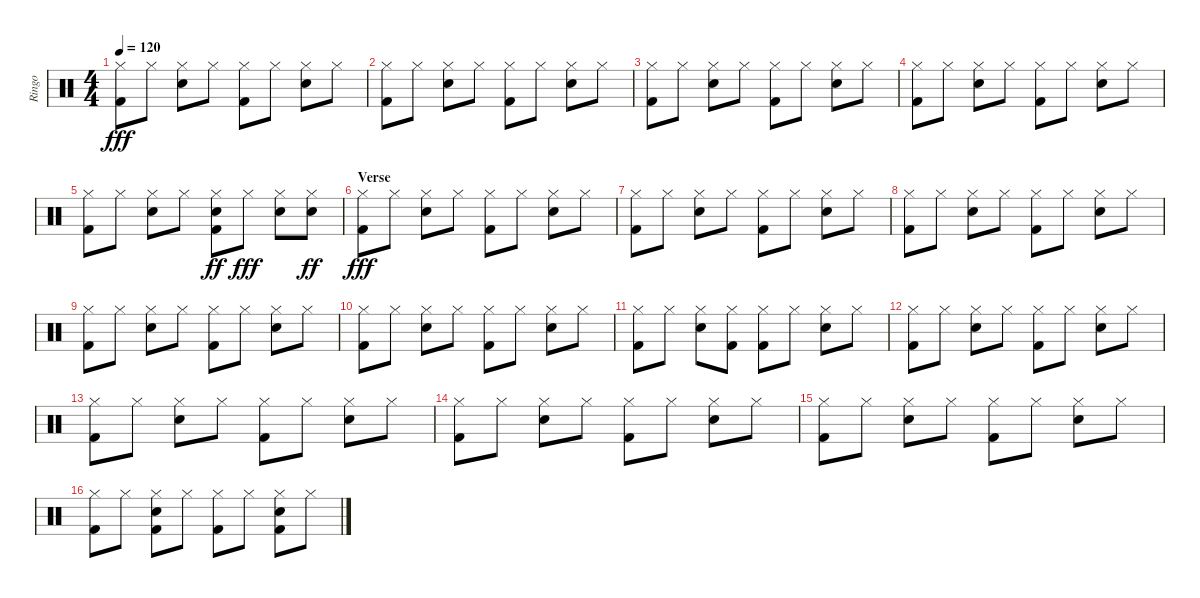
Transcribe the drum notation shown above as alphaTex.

\track ("Ringo" "Ringo") {instrument percussion}
\staff {score}
\articulation defaults
\ts (4 4)
\tempo 120
\clef neutral
\ks c
("Hi-Hat (closed)" "Kick (hit) 2").8{dy fff} "Hi-Hat (closed)".8 ("Hi-Hat (closed)" "Snare (hit) 2").8 "Hi-Hat (closed)".8 ("Hi-Hat (closed)" "Kick (hit) 2").8 "Hi-Hat (closed)".8 ("Hi-Hat (closed)" "Snare (hit) 2").8 "Hi-Hat (closed)".8 |
("Hi-Hat (closed)" "Kick (hit) 2").8 "Hi-Hat (closed)".8 ("Hi-Hat (closed)" "Snare (hit) 2").8 "Hi-Hat (closed)".8 ("Hi-Hat (closed)" "Kick (hit) 2").8 "Hi-Hat (closed)".8 ("Hi-Hat (closed)" "Snare (hit) 2").8 "Hi-Hat (closed)".8 |
("Hi-Hat (closed)" "Kick (hit) 2").8 "Hi-Hat (closed)".8 ("Hi-Hat (closed)" "Snare (hit) 2").8 "Hi-Hat (closed)".8 ("Hi-Hat (closed)" "Kick (hit) 2").8 "Hi-Hat (closed)".8 ("Hi-Hat (closed)" "Snare (hit) 2").8 "Hi-Hat (closed)".8 |
("Hi-Hat (closed)" "Kick (hit) 2").8 "Hi-Hat (closed)".8 ("Hi-Hat (closed)" "Snare (hit) 2").8 "Hi-Hat (closed)".8 ("Hi-Hat (closed)" "Kick (hit) 2").8 "Hi-Hat (closed)".8 ("Hi-Hat (closed)" "Snare (hit) 2").8 "Hi-Hat (closed)".8 |
("Hi-Hat (closed)" "Kick (hit) 2").8 "Hi-Hat (closed)".8 ("Hi-Hat (closed)" "Snare (hit) 2").8 "Hi-Hat (closed)".8 ("Hi-Hat (closed)" "Snare (hit) 2" "Kick (hit) 2").8{dy ff} "Hi-Hat (closed)".8{dy fff} ("Hi-Hat (closed)" "Snare (hit) 2").8 ("Hi-Hat (closed)" "Snare (hit) 2").8{dy ff} |
\section ("" "Verse")
("Hi-Hat (closed)" "Kick (hit) 2").8{dy fff} "Hi-Hat (closed)".8 ("Hi-Hat (closed)" "Snare (hit) 2").8 "Hi-Hat (closed)".8 ("Hi-Hat (closed)" "Kick (hit) 2").8 "Hi-Hat (closed)".8 ("Hi-Hat (closed)" "Snare (hit) 2").8 "Hi-Hat (closed)".8 |
("Hi-Hat (closed)" "Kick (hit) 2").8 "Hi-Hat (closed)".8 ("Hi-Hat (closed)" "Snare (hit) 2").8 "Hi-Hat (closed)".8 ("Hi-Hat (closed)" "Kick (hit) 2").8 "Hi-Hat (closed)".8 ("Hi-Hat (closed)" "Snare (hit) 2").8 "Hi-Hat (closed)".8 |
("Hi-Hat (closed)" "Kick (hit) 2").8 "Hi-Hat (closed)".8 ("Hi-Hat (closed)" "Snare (hit) 2").8 "Hi-Hat (closed)".8 ("Hi-Hat (closed)" "Kick (hit) 2").8 "Hi-Hat (closed)".8 ("Hi-Hat (closed)" "Snare (hit) 2").8 "Hi-Hat (closed)".8 |
("Hi-Hat (closed)" "Kick (hit) 2").8 "Hi-Hat (closed)".8 ("Hi-Hat (closed)" "Snare (hit) 2").8 "Hi-Hat (closed)".8 ("Hi-Hat (closed)" "Kick (hit) 2").8 "Hi-Hat (closed)".8 ("Hi-Hat (closed)" "Snare (hit) 2").8 "Hi-Hat (closed)".8 |
("Hi-Hat (closed)" "Kick (hit) 2").8 "Hi-Hat (closed)".8 ("Hi-Hat (closed)" "Snare (hit) 2").8 "Hi-Hat (closed)".8 ("Hi-Hat (closed)" "Kick (hit) 2").8 "Hi-Hat (closed)".8 ("Hi-Hat (closed)" "Snare (hit) 2").8 "Hi-Hat (closed)".8 |
("Hi-Hat (closed)" "Kick (hit) 2").8 "Hi-Hat (closed)".8 ("Hi-Hat (closed)" "Snare (hit) 2").8 ("Hi-Hat (closed)" "Kick (hit) 2").8 ("Hi-Hat (closed)" "Kick (hit) 2").8 "Hi-Hat (closed)".8 ("Hi-Hat (closed)" "Snare (hit) 2").8 "Hi-Hat (closed)".8 |
("Hi-Hat (closed)" "Kick (hit) 2").8 "Hi-Hat (closed)".8 ("Hi-Hat (closed)" "Snare (hit) 2").8 "Hi-Hat (closed)".8 ("Hi-Hat (closed)" "Kick (hit) 2").8 "Hi-Hat (closed)".8 ("Hi-Hat (closed)" "Snare (hit) 2").8 "Hi-Hat (closed)".8 |
("Hi-Hat (closed)" "Kick (hit) 2").8 "Hi-Hat (closed)".8 ("Hi-Hat (closed)" "Snare (hit) 2").8 "Hi-Hat (closed)".8 ("Hi-Hat (closed)" "Kick (hit) 2").8 "Hi-Hat (closed)".8 ("Hi-Hat (closed)" "Snare (hit) 2").8 "Hi-Hat (closed)".8 |
("Hi-Hat (closed)" "Kick (hit) 2").8 "Hi-Hat (closed)".8 ("Hi-Hat (closed)" "Snare (hit) 2").8 "Hi-Hat (closed)".8 ("Hi-Hat (closed)" "Kick (hit) 2").8 "Hi-Hat (closed)".8 ("Hi-Hat (closed)" "Snare (hit) 2").8 "Hi-Hat (closed)".8 |
("Hi-Hat (closed)" "Kick (hit) 2").8 "Hi-Hat (closed)".8 ("Hi-Hat (closed)" "Snare (hit) 2").8 "Hi-Hat (closed)".8 ("Hi-Hat (closed)" "Kick (hit) 2").8 "Hi-Hat (closed)".8 ("Hi-Hat (closed)" "Snare (hit) 2").8 "Hi-Hat (closed)".8 |
("Hi-Hat (closed)" "Kick (hit) 2").8 "Hi-Hat (closed)".8 ("Hi-Hat (closed)" "Snare (hit) 2" "Kick (hit) 2").8 "Hi-Hat (closed)".8 ("Hi-Hat (closed)" "Kick (hit) 2").8 "Hi-Hat (closed)".8 ("Hi-Hat (closed)" "Snare (hit) 2" "Kick (hit) 2").8 "Hi-Hat (closed)".8
